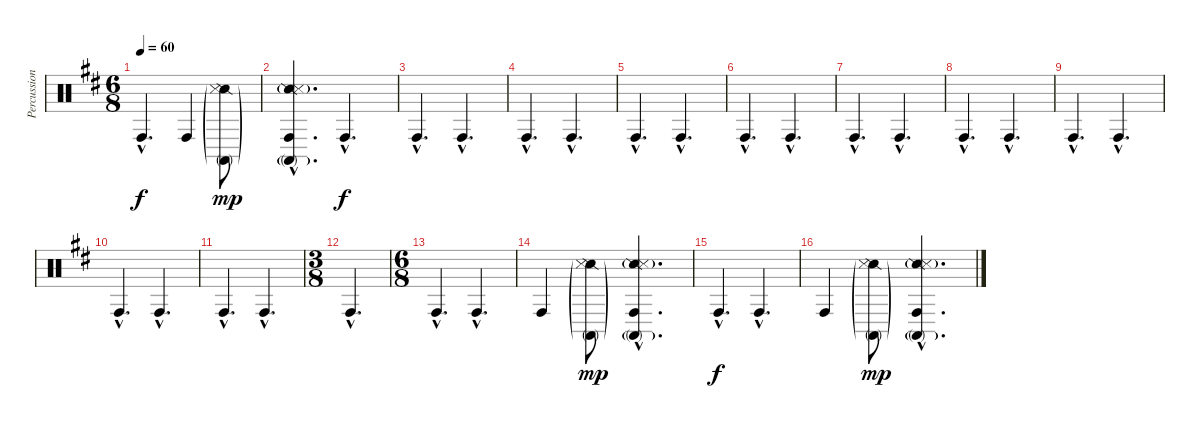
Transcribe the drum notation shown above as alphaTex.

\track ("Percussions" "Percussion") {instrument percussion}
\staff {score}
\articulation defaults
\ts (6 8)
\tempo 60
\clef neutral
\ks bminor "Conga high (hit)"{hac}.4{d dy f} "Conga high (hit)".4
("Snare (side stick) 2"{g} "Conga high (mute)"{g} "Metronome (hit)"{g}).8{dy mp} |
("Conga high (hit)"{hac} "Snare (side stick) 2"{g hac} "Conga high (mute)"{g hac} "Metronome (hit)"{g hac}).4{d} "Conga high (hit)"{hac}.4{d dy f} |
"Conga high (hit)"{hac}.4{d} "Conga high (hit)"{hac}.4{d} |
"Conga high (hit)"{hac}.4{d} "Conga high (hit)"{hac}.4{d} |
"Conga high (hit)"{hac}.4{d} "Conga high (hit)"{hac}.4{d} |
"Conga high (hit)"{hac}.4{d} "Conga high (hit)"{hac}.4{d} |
"Conga high (hit)"{hac}.4{d} "Conga high (hit)"{hac}.4{d} |
"Conga high (hit)"{hac}.4{d} "Conga high (hit)"{hac}.4{d} |
"Conga high (hit)"{hac}.4{d} "Conga high (hit)"{hac}.4{d} |
"Conga high (hit)"{hac}.4{d} "Conga high (hit)"{hac}.4{d} |
"Conga high (hit)"{hac}.4{d} "Conga high (hit)"{hac}.4{d} |
\ts (3 8)
"Conga high (hit)"{hac}.4{d} |
\ts (6 8)
"Conga high (hit)"{hac}.4{d} "Conga high (hit)"{hac}.4{d} |
"Conga high (hit)".4 ("Snare (side stick) 2"{g} "Conga high (mute)"{g} "Metronome (hit)"{g}).8{dy mp} ("Conga high (hit)"{hac} "Snare (side stick) 2"{g hac} "Conga high (mute)"{g hac} "Metronome (hit)"{g hac}).4{d} |
"Conga high (hit)"{hac}.4{d dy f} "Conga high (hit)"{hac}.4{d} |
"Conga high (hit)".4 ("Snare (side stick) 2"{g} "Conga high (mute)"{g} "Metronome (hit)"{g}).8{dy mp} ("Conga high (hit)"{hac} "Snare (side stick) 2"{g hac} "Conga high (mute)"{g hac} "Metronome (hit)"{g hac}).4{d}
